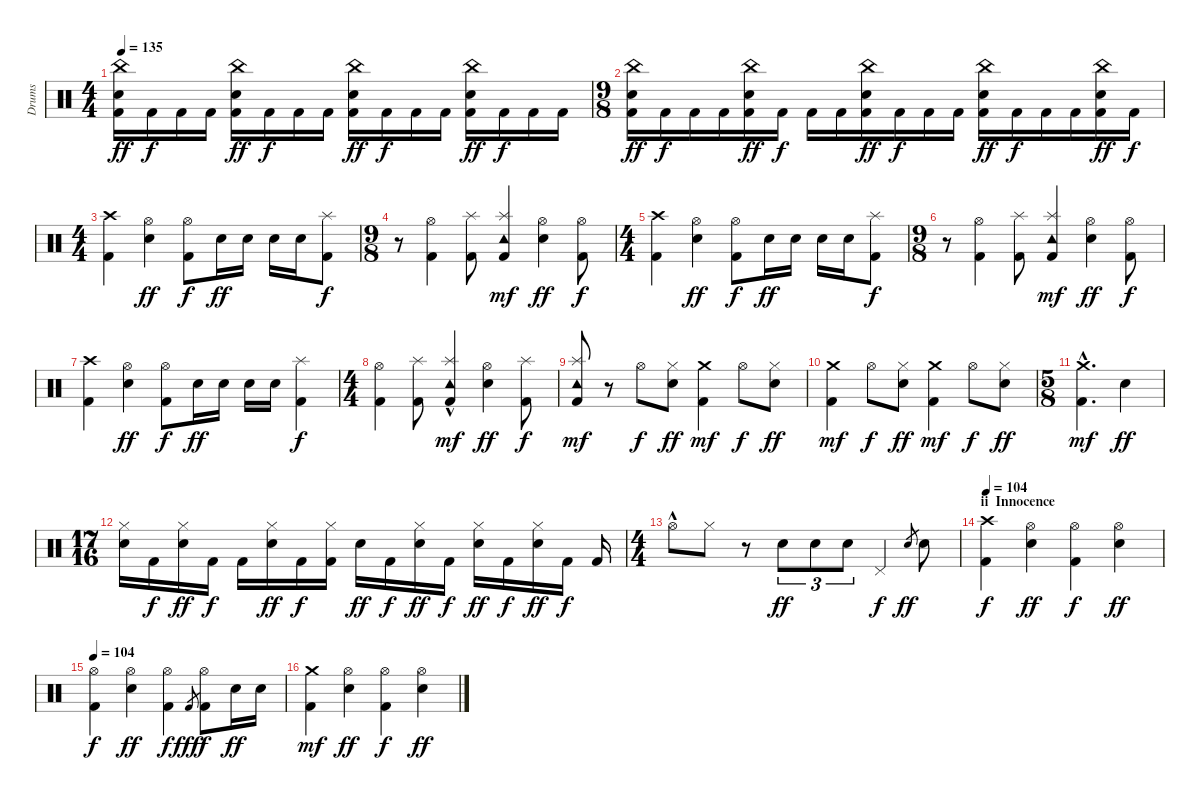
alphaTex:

\track ("Drums" "Drums") {instrument percussion}
\staff {score}
\articulation defaults
\ts (4 4)
\tempo 135
\clef neutral
\ks c
("Kick (hit) 2" "Electric Snare (hit)" "China (hit)").16{dy ff} "Kick (hit) 2".16{dy f} "Kick (hit) 2".16 "Kick (hit) 2".16 ("Kick (hit) 2" "Electric Snare (hit)" "China (hit)").16{dy ff} "Kick (hit) 2".16{dy f} "Kick (hit) 2".16 "Kick (hit) 2".16 ("Kick (hit) 2" "Electric Snare (hit)" "China (hit)").16{dy ff} "Kick (hit) 2".16{dy f} "Kick (hit) 2".16 "Kick (hit) 2".16 ("Kick (hit) 2" "Electric Snare (hit)" "China (hit)").16{dy ff} "Kick (hit) 2".16{dy f} "Kick (hit) 2".16 "Kick (hit) 2".16 |
\ts (9 8)
("Kick (hit) 2" "Electric Snare (hit)" "China (hit)").16{dy ff} "Kick (hit) 2".16{dy f} "Kick (hit) 2".16 "Kick (hit) 2".16 ("Kick (hit) 2" "Electric Snare (hit)" "China (hit)").16{dy ff} "Kick (hit) 2".16{dy f} "Kick (hit) 2".16 "Kick (hit) 2".16 ("Kick (hit) 2" "Electric Snare (hit)" "China (hit)").16{dy ff} "Kick (hit) 2".16{dy f} "Kick (hit) 2".16 "Kick (hit) 2".16 ("Kick (hit) 2" "Electric Snare (hit)" "China (hit)").16{dy ff} "Kick (hit) 2".16{dy f} "Kick (hit) 2".16 "Kick (hit) 2".16 ("Kick (hit) 2" "Electric Snare (hit)" "China (hit)").16{dy ff} "Kick (hit) 2".16{dy f} |
\ts (4 4)
("Kick (hit) 2" "Crash high (hit)").4 ("Electric Snare (hit)" "Hi-Hat (open)").4{dy ff} ("Kick (hit) 2" "Hi-Hat (open)").8{dy f} "Electric Snare (hit)".16{dy ff} "Electric Snare (hit)".16 "Electric Snare (hit)".16 "Electric Snare (hit)".16 ("Kick (hit) 2" "Splash (hit)").8{dy f} |
\ts (9 8)
r.8 ("Kick (hit) 2" "Hi-Hat (open)").4 ("Kick (hit) 2" "Splash (hit)").8 ("Kick (hit) 2" "Splash (hit)" "Tambourine (hit)").4{dy mf} ("Electric Snare (hit)" "Hi-Hat (open)").4{dy ff} ("Hi-Hat (open)" "Kick (hit) 2").8{dy f} |
\ts (4 4)
("Kick (hit) 2" "Crash high (hit)").4 ("Electric Snare (hit)" "Hi-Hat (open)").4{dy ff} ("Kick (hit) 2" "Hi-Hat (open)").8{dy f} "Electric Snare (hit)".16{dy ff} "Electric Snare (hit)".16 "Electric Snare (hit)".16 "Electric Snare (hit)".16 ("Kick (hit) 2" "Splash (hit)").8{dy f} |
\ts (9 8)
r.8 ("Kick (hit) 2" "Hi-Hat (open)").4 ("Kick (hit) 2" "Splash (hit)").8 ("Kick (hit) 2" "Splash (hit)" "Tambourine (hit)").4{dy mf} ("Electric Snare (hit)" "Hi-Hat (open)").4{dy ff} ("Hi-Hat (open)" "Kick (hit) 2").8{dy f} |
("Kick (hit) 2" "Crash high (hit)").4 ("Electric Snare (hit)" "Hi-Hat (open)").4{dy ff} ("Kick (hit) 2" "Hi-Hat (open)").8{dy f} "Electric Snare (hit)".16{dy ff} "Electric Snare (hit)".16 "Electric Snare (hit)".16 "Electric Snare (hit)".16 ("Kick (hit) 2" "Splash (hit)").4{dy f} |
\ts (4 4)
("Kick (hit) 2" "Hi-Hat (open)").4 ("Kick (hit) 2" "Splash (hit)").8 ("Kick (hit) 2" "Splash (hit)"{hac} "Tambourine (hit)"{hac}).4{dy mf} ("Electric Snare (hit)" "Hi-Hat (open)").4{dy ff} ("Kick (hit) 2" "Splash (hit)").8{dy f} |
("Kick (hit) 2" "Splash (hit)" "Tambourine (hit)").8{dy mf} r.8 "Hi-Hat (open)".8{dy f} ("Electric Snare (hit)" "Hi-Hat (closed)").8{dy ff} ("Kick (hit) 2" "Crash medium (hit)").4{dy mf} "Hi-Hat (open)".8{dy f} ("Electric Snare (hit)" "Hi-Hat (closed)").8{dy ff} |
("Kick (hit) 2" "Crash medium (hit)").4{dy mf} "Hi-Hat (open)".8{dy f} ("Electric Snare (hit)" "Hi-Hat (closed)").8{dy ff} ("Kick (hit) 2" "Crash medium (hit)").4{dy mf} "Hi-Hat (open)".8{dy f} ("Electric Snare (hit)" "Hi-Hat (closed)").8{dy ff} |
\ts (5 8)
("Kick (hit) 2"{hac} "Crash medium (hit)"{hac}).4{d dy mf} "Electric Snare (hit)".4{dy ff} |
\ts (17 16)
("Electric Snare (hit)" "Hi-Hat (closed)").16 "Kick (hit) 2".16{dy f} ("Electric Snare (hit)" "Hi-Hat (closed)").16{dy ff} "Kick (hit) 2".16{dy f} "Kick (hit) 2".16 ("Electric Snare (hit)" "Hi-Hat (closed)").16{dy ff} "Kick (hit) 2".16{dy f} ("Kick (hit) 2" "Hi-Hat (closed)").16 "Electric Snare (hit)".16{dy ff} "Kick (hit) 2".16{dy f} ("Electric Snare (hit)" "Hi-Hat (closed)").16{dy ff} "Kick (hit) 2".16{dy f} ("Electric Snare (hit)" "Hi-Hat (closed)").16{dy ff} "Kick (hit) 2".16{dy f} ("Electric Snare (hit)" "Hi-Hat (closed)").16{dy ff} "Kick (hit) 2".16{dy f} "Kick (hit) 2".16 |
\ts (4 4)
"Hi-Hat (open)"{hac}.8 "Hi-Hat (closed)".8 r.8 "Electric Snare (hit)".8{tu (3 2) dy ff} "Electric Snare (hit)".8{tu (3 2)} "Electric Snare (hit)".8{tu (3 2)} "Pedal Hi-Hat (hit)".4{dy f} "Electric Snare (hit)".8{gr dy ff} "Electric Snare (hit)".8 |
\section ("" "ii  Innocence")
\tempo 104
("Kick (hit) 2" "Crash high (hit)").4{dy f} ("Electric Snare (hit)" "Hi-Hat (open)").4{dy ff} ("Kick (hit) 2" "Hi-Hat (open)").4{dy f} ("Electric Snare (hit)" "Hi-Hat (open)").4{dy ff} |
\tempo 104
("Kick (hit) 2" "Hi-Hat (open)").4{dy f} ("Electric Snare (hit)" "Hi-Hat (open)").4{dy ff} ("Kick (hit) 2" "Hi-Hat (open)").4{dy f} "Kick (hit) 2".8{gr dy fff} ("Kick (hit) 2" "Hi-Hat (open)").8{dy f} "Electric Snare (hit)".16{dy ff} "Electric Snare (hit)".16 |
("Kick (hit) 2" "Crash medium (hit)").4{dy mf} ("Electric Snare (hit)" "Hi-Hat (open)").4{dy ff} ("Kick (hit) 2" "Hi-Hat (open)").4{dy f} ("Electric Snare (hit)" "Hi-Hat (open)").4{dy ff}
